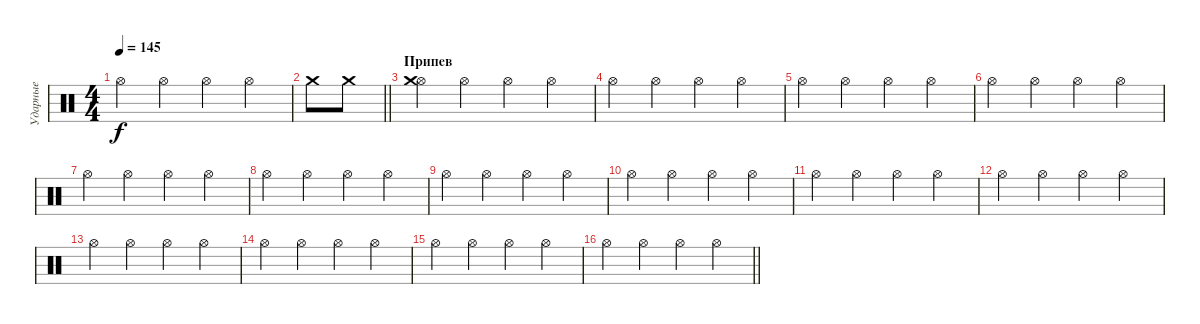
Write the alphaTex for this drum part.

\track ("Ударные" "Ударные") {instrument percussion}
\staff {score}
\articulation defaults
\ts (4 4)
\tempo 145
\clef neutral
\ks c "Hi-Hat (open)".4{dy f} "Hi-Hat (open)".4 "Hi-Hat (open)".4 "Hi-Hat (open)".4
|
\barLineRight lightlight "Crash medium (hit)".8 "Crash medium (hit)".8
|
\section ("" "Припев")
("Hi-Hat (open)" "Crash medium (hit)").4 "Hi-Hat (open)".4 "Hi-Hat (open)".4 "Hi-Hat (open)".4 |
"Hi-Hat (open)".4 "Hi-Hat (open)".4 "Hi-Hat (open)".4 "Hi-Hat (open)".4 |
"Hi-Hat (open)".4 "Hi-Hat (open)".4 "Hi-Hat (open)".4 "Hi-Hat (open)".4 |
"Hi-Hat (open)".4 "Hi-Hat (open)".4 "Hi-Hat (open)".4 "Hi-Hat (open)".4 |
"Hi-Hat (open)".4 "Hi-Hat (open)".4 "Hi-Hat (open)".4 "Hi-Hat (open)".4 |
"Hi-Hat (open)".4 "Hi-Hat (open)".4 "Hi-Hat (open)".4 "Hi-Hat (open)".4 |
"Hi-Hat (open)".4 "Hi-Hat (open)".4 "Hi-Hat (open)".4 "Hi-Hat (open)".4 |
"Hi-Hat (open)".4 "Hi-Hat (open)".4 "Hi-Hat (open)".4 "Hi-Hat (open)".4 |
"Hi-Hat (open)".4 "Hi-Hat (open)".4 "Hi-Hat (open)".4 "Hi-Hat (open)".4 |
"Hi-Hat (open)".4 "Hi-Hat (open)".4 "Hi-Hat (open)".4 "Hi-Hat (open)".4 |
"Hi-Hat (open)".4 "Hi-Hat (open)".4 "Hi-Hat (open)".4 "Hi-Hat (open)".4 |
"Hi-Hat (open)".4 "Hi-Hat (open)".4 "Hi-Hat (open)".4 "Hi-Hat (open)".4 |
"Hi-Hat (open)".4 "Hi-Hat (open)".4 "Hi-Hat (open)".4 "Hi-Hat (open)".4 |
\barLineRight lightlight "Hi-Hat (open)".4 "Hi-Hat (open)".4 "Hi-Hat (open)".4 "Hi-Hat (open)".4
